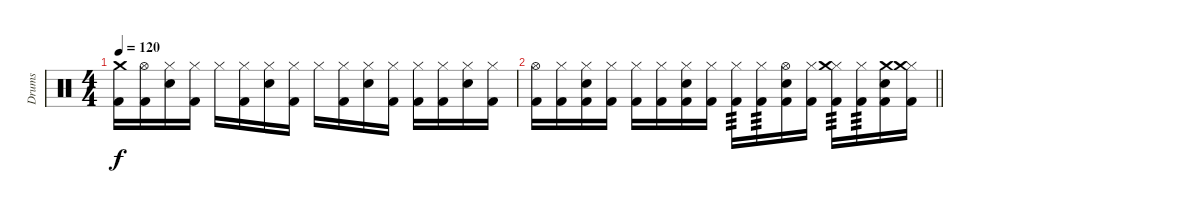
\track ("Drums" "Drums") {instrument percussion}
\staff {score}
\articulation defaults
\ts (4 4)
\tempo 120
\clef neutral
\ks c
("Kick (hit) 2" "Crash medium (hit)").16{dy f} ("Kick (hit) 2" "Hi-Hat (open)").16 ("Snare (hit) 2" "Hi-Hat (closed)").16 ("Kick (hit) 2" "Hi-Hat (closed)").16 "Hi-Hat (closed)".16 ("Kick (hit) 2" "Hi-Hat (closed)").16 ("Snare (hit) 2" "Hi-Hat (closed)").16 ("Kick (hit) 2" "Hi-Hat (closed)").16 "Hi-Hat (closed)".16 ("Kick (hit) 2" "Hi-Hat (closed)").16 ("Snare (hit) 2" "Hi-Hat (closed)").16 ("Kick (hit) 2" "Hi-Hat (closed)").16 ("Kick (hit) 2" "Hi-Hat (closed)").16 ("Kick (hit) 2" "Hi-Hat (closed)").16 ("Snare (hit) 2" "Hi-Hat (closed)").16 ("Kick (hit) 2" "Hi-Hat (closed)").16 |
\barLineRight lightlight
("Kick (hit) 2" "Hi-Hat (open)").16 ("Kick (hit) 2" "Hi-Hat (closed)").16 ("Kick (hit) 2" "Snare (hit) 2" "Hi-Hat (closed)").16 ("Kick (hit) 2" "Hi-Hat (closed)").16 ("Kick (hit) 2" "Hi-Hat (closed)").16 ("Kick (hit) 2" "Hi-Hat (closed)").16 ("Kick (hit) 2" "Snare (hit) 2" "Hi-Hat (closed)").16 ("Kick (hit) 2" "Hi-Hat (closed)").16 ("Kick (hit) 2" "Hi-Hat (closed)").16{tp 3} ("Kick (hit) 2" "Hi-Hat (closed)").16{tp 3} ("Kick (hit) 2" "Snare (hit) 2" "Hi-Hat (open)").16 ("Kick (hit) 2" "Hi-Hat (closed)").16 ("Kick (hit) 2" "Hi-Hat (closed)" "Crash medium (hit)").16{tp 3} ("Kick (hit) 2" "Hi-Hat (closed)").16{tp 3} ("Kick (hit) 2" "Snare (hit) 2" "Crash medium (hit)").16 ("Kick (hit) 2" "Hi-Hat (closed)" "Crash medium (hit)").16
